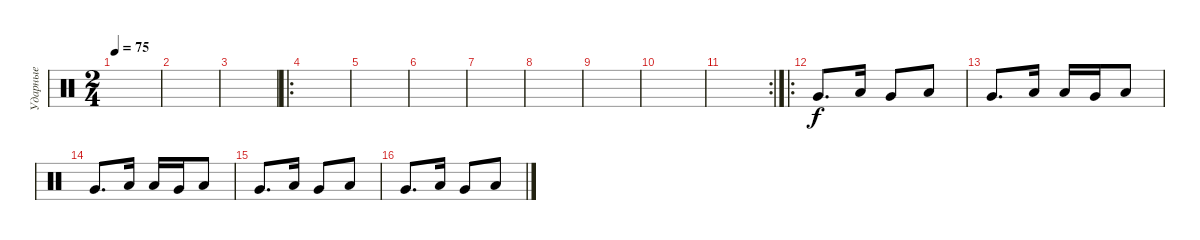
\track ("Ударные" "Ударные") {instrument percussion}
\staff {score}
\articulation defaults
\ts (2 4)
\tempo 75
\clef neutral
\ks c
|
|
|
\ro
|
|
|
|
|
|
|
\rc 2
|
\ro "Very Low Tom (hit)".8{d} "Low Tom (hit)".16 "Very Low Tom (hit)".8 "Low Tom (hit)".8
|
"Very Low Tom (hit)".8{d} "Low Tom (hit)".16 "Low Floor Tom (hit)".16 "Very Low Tom (hit)".16 "Low Tom (hit)".8 |
"Very Low Tom (hit)".8{d} "Low Tom (hit)".16 "Low Floor Tom (hit)".16 "Very Low Tom (hit)".16 "Low Tom (hit)".8 |
"Very Low Tom (hit)".8{d} "Low Tom (hit)".16 "Very Low Tom (hit)".8 "Low Tom (hit)".8 |
"Very Low Tom (hit)".8{d} "Low Tom (hit)".16 "Very Low Tom (hit)".8 "Low Tom (hit)".8
